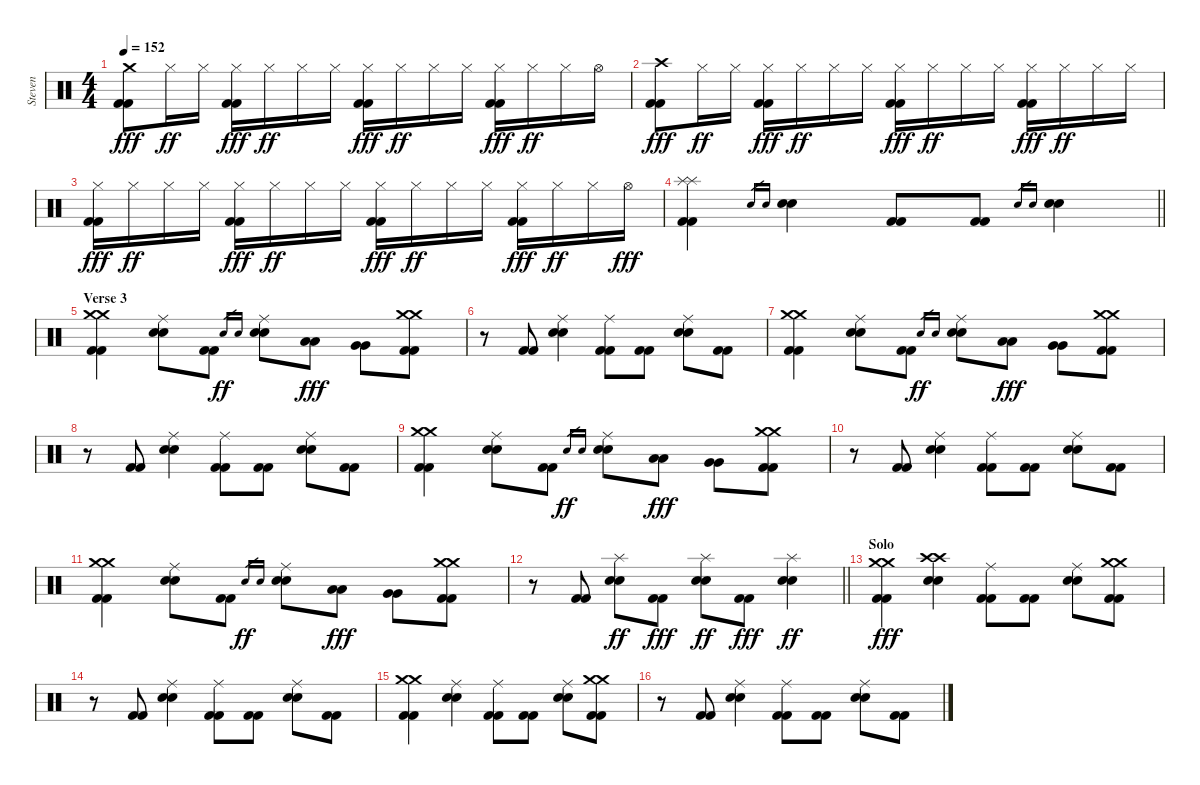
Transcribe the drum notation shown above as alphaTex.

\track ("Steven" "Steven") {instrument percussion}
\staff {score}
\articulation defaults
\ts (4 4)
\tempo 152
\clef neutral
\ks c
("Crash medium (hit)" "Kick (hit) 2" "Kick (hit) 2").8{dy fff} "Hi-Hat (closed)".16{dy ff} "Hi-Hat (closed)".16 ("Hi-Hat (closed)" "Kick (hit) 2" "Kick (hit) 2").16{dy fff} "Hi-Hat (closed)".16{dy ff} "Hi-Hat (closed)".16 "Hi-Hat (closed)".16 ("Hi-Hat (closed)" "Kick (hit) 2" "Kick (hit) 2").16{dy fff} "Hi-Hat (closed)".16{dy ff} "Hi-Hat (closed)".16 "Hi-Hat (closed)".16 ("Hi-Hat (closed)" "Kick (hit) 2" "Kick (hit) 2").16{dy fff} "Hi-Hat (closed)".16{dy ff} "Hi-Hat (closed)".16 "Hi-Hat (open)".16 |
("Crash high (hit)" "Kick (hit) 2" "Kick (hit) 2").8{dy fff} "Hi-Hat (closed)".16{dy ff} "Hi-Hat (closed)".16 ("Hi-Hat (closed)" "Kick (hit) 2" "Kick (hit) 2").16{dy fff} "Hi-Hat (closed)".16{dy ff} "Hi-Hat (closed)".16 "Hi-Hat (closed)".16 ("Hi-Hat (closed)" "Kick (hit) 2" "Kick (hit) 2").16{dy fff} "Hi-Hat (closed)".16{dy ff} "Hi-Hat (closed)".16 "Hi-Hat (closed)".16 ("Hi-Hat (closed)" "Kick (hit) 2" "Kick (hit) 2").16{dy fff} "Hi-Hat (closed)".16{dy ff} "Hi-Hat (closed)".16 "Hi-Hat (closed)".16 |
("Hi-Hat (closed)" "Kick (hit) 2" "Kick (hit) 2").16{dy fff} "Hi-Hat (closed)".16{dy ff} "Hi-Hat (closed)".16 "Hi-Hat (closed)".16 ("Hi-Hat (closed)" "Kick (hit) 2" "Kick (hit) 2").16{dy fff} "Hi-Hat (closed)".16{dy ff} "Hi-Hat (closed)".16 "Hi-Hat (closed)".16 ("Hi-Hat (closed)" "Kick (hit) 2" "Kick (hit) 2").16{dy fff} "Hi-Hat (closed)".16{dy ff} "Hi-Hat (closed)".16 "Hi-Hat (closed)".16 ("Hi-Hat (closed)" "Kick (hit) 2" "Kick (hit) 2").16{dy fff} "Hi-Hat (closed)".16{dy ff} "Hi-Hat (closed)".16 "Hi-Hat (open)".16{dy fff} |
\barLineRight lightlight
("Splash (hit)" "Splash (hit)" "Kick (hit) 2" "Kick (hit) 2").4 "Electric Snare (hit)".16{gr} "Electric Snare (hit)".16{gr} ("Electric Snare (hit)" "Electric Snare (hit)").4 ("Kick (hit) 2" "Kick (hit) 2").8 ("Kick (hit) 2" "Kick (hit) 2").8 "Electric Snare (hit)".16{gr} "Electric Snare (hit)".16{gr} ("Electric Snare (hit)" "Electric Snare (hit)").4 |
\section ("" "Verse 3")
("Crash medium (hit)" "Crash medium (hit)" "Kick (hit) 2" "Kick (hit) 2").4 ("Ride (middle)" "Electric Snare (hit)" "Electric Snare (hit)").8 ("Kick (hit) 2" "Kick (hit) 2").8 "Electric Snare (hit)".16{gr dy ff} "Electric Snare (hit)".16{gr} ("Ride (middle)" "Electric Snare (hit)" "Electric Snare (hit)").8 ("Low Tom (hit)" "Low Tom (hit)").8{dy fff} ("Very Low Tom (hit)" "Very Low Tom (hit)").8 ("Crash medium (hit)" "Crash medium (hit)" "Kick (hit) 2" "Kick (hit) 2").8 |
r.8 ("Kick (hit) 2" "Kick (hit) 2").8 ("Ride (middle)" "Electric Snare (hit)" "Electric Snare (hit)").4 ("Ride (middle)" "Kick (hit) 2" "Kick (hit) 2").8 ("Kick (hit) 2" "Kick (hit) 2").8 ("Ride (middle)" "Electric Snare (hit)" "Electric Snare (hit)").8 ("Kick (hit) 2" "Kick (hit) 2").8 |
("Crash medium (hit)" "Crash medium (hit)" "Kick (hit) 2" "Kick (hit) 2").4 ("Ride (middle)" "Electric Snare (hit)" "Electric Snare (hit)").8 ("Kick (hit) 2" "Kick (hit) 2").8 "Electric Snare (hit)".16{gr dy ff} "Electric Snare (hit)".16{gr} ("Ride (middle)" "Electric Snare (hit)" "Electric Snare (hit)").8 ("Low Tom (hit)" "Low Tom (hit)").8{dy fff} ("Very Low Tom (hit)" "Very Low Tom (hit)").8 ("Crash medium (hit)" "Crash medium (hit)" "Kick (hit) 2" "Kick (hit) 2").8 |
r.8 ("Kick (hit) 2" "Kick (hit) 2").8 ("Ride (middle)" "Electric Snare (hit)" "Electric Snare (hit)").4 ("Ride (middle)" "Kick (hit) 2" "Kick (hit) 2").8 ("Kick (hit) 2" "Kick (hit) 2").8 ("Ride (middle)" "Electric Snare (hit)" "Electric Snare (hit)").8 ("Kick (hit) 2" "Kick (hit) 2").8 |
("Crash medium (hit)" "Crash medium (hit)" "Kick (hit) 2" "Kick (hit) 2").4 ("Ride (middle)" "Electric Snare (hit)" "Electric Snare (hit)").8 ("Kick (hit) 2" "Kick (hit) 2").8 "Electric Snare (hit)".16{gr dy ff} "Electric Snare (hit)".16{gr} ("Ride (middle)" "Electric Snare (hit)" "Electric Snare (hit)").8 ("Low Tom (hit)" "Low Tom (hit)").8{dy fff} ("Very Low Tom (hit)" "Very Low Tom (hit)").8 ("Crash medium (hit)" "Crash medium (hit)" "Kick (hit) 2" "Kick (hit) 2").8 |
r.8 ("Kick (hit) 2" "Kick (hit) 2").8 ("Ride (middle)" "Electric Snare (hit)" "Electric Snare (hit)").4 ("Ride (middle)" "Kick (hit) 2" "Kick (hit) 2").8 ("Kick (hit) 2" "Kick (hit) 2").8 ("Ride (middle)" "Electric Snare (hit)" "Electric Snare (hit)").8 ("Kick (hit) 2" "Kick (hit) 2").8 |
("Crash medium (hit)" "Crash medium (hit)" "Kick (hit) 2" "Kick (hit) 2").4 ("Ride (middle)" "Electric Snare (hit)" "Electric Snare (hit)").8 ("Kick (hit) 2" "Kick (hit) 2").8 "Electric Snare (hit)".16{gr dy ff} "Electric Snare (hit)".16{gr} ("Ride (middle)" "Electric Snare (hit)" "Electric Snare (hit)").8 ("Low Tom (hit)" "Low Tom (hit)").8{dy fff} ("Very Low Tom (hit)" "Very Low Tom (hit)").8 ("Crash medium (hit)" "Crash medium (hit)" "Kick (hit) 2" "Kick (hit) 2").8 |
\barLineRight lightlight
r.8 ("Kick (hit) 2" "Kick (hit) 2").8 ("Splash (hit)" "Electric Snare (hit)" "Electric Snare (hit)").8{dy ff} ("Kick (hit) 2" "Kick (hit) 2").8{dy fff} ("Splash (hit)" "Electric Snare (hit)" "Electric Snare (hit)").8{dy ff} ("Kick (hit) 2" "Kick (hit) 2").8{dy fff} ("Splash (hit)" "Electric Snare (hit)" "Electric Snare (hit)").4{dy ff} |
\section ("" "Solo")
("Crash medium (hit)" "Crash medium (hit)" "Kick (hit) 2" "Kick (hit) 2").4{dy fff} ("Crash high (hit)" "Crash high (hit)" "Electric Snare (hit)" "Electric Snare (hit)").4 ("Ride (middle)" "Kick (hit) 2" "Kick (hit) 2").8 ("Kick (hit) 2" "Kick (hit) 2").8 ("Ride (middle)" "Electric Snare (hit)" "Electric Snare (hit)").8 ("Crash medium (hit)" "Crash medium (hit)" "Kick (hit) 2" "Kick (hit) 2").8 |
r.8 ("Kick (hit) 2" "Kick (hit) 2").8 ("Ride (middle)" "Electric Snare (hit)" "Electric Snare (hit)").4 ("Ride (middle)" "Kick (hit) 2" "Kick (hit) 2").8 ("Kick (hit) 2" "Kick (hit) 2").8 ("Ride (middle)" "Electric Snare (hit)" "Electric Snare (hit)").8 ("Kick (hit) 2" "Kick (hit) 2").8 |
("Crash medium (hit)" "Crash medium (hit)" "Kick (hit) 2" "Kick (hit) 2").4 ("Ride (middle)" "Electric Snare (hit)" "Electric Snare (hit)").4 ("Ride (middle)" "Kick (hit) 2" "Kick (hit) 2").8 ("Kick (hit) 2" "Kick (hit) 2").8 ("Ride (middle)" "Electric Snare (hit)" "Electric Snare (hit)").8 ("Crash medium (hit)" "Crash medium (hit)" "Kick (hit) 2" "Kick (hit) 2").8 |
r.8 ("Kick (hit) 2" "Kick (hit) 2").8 ("Ride (middle)" "Electric Snare (hit)" "Electric Snare (hit)").4 ("Ride (middle)" "Kick (hit) 2" "Kick (hit) 2").8 ("Kick (hit) 2" "Kick (hit) 2").8 ("Ride (middle)" "Electric Snare (hit)" "Electric Snare (hit)").8 ("Kick (hit) 2" "Kick (hit) 2").8
